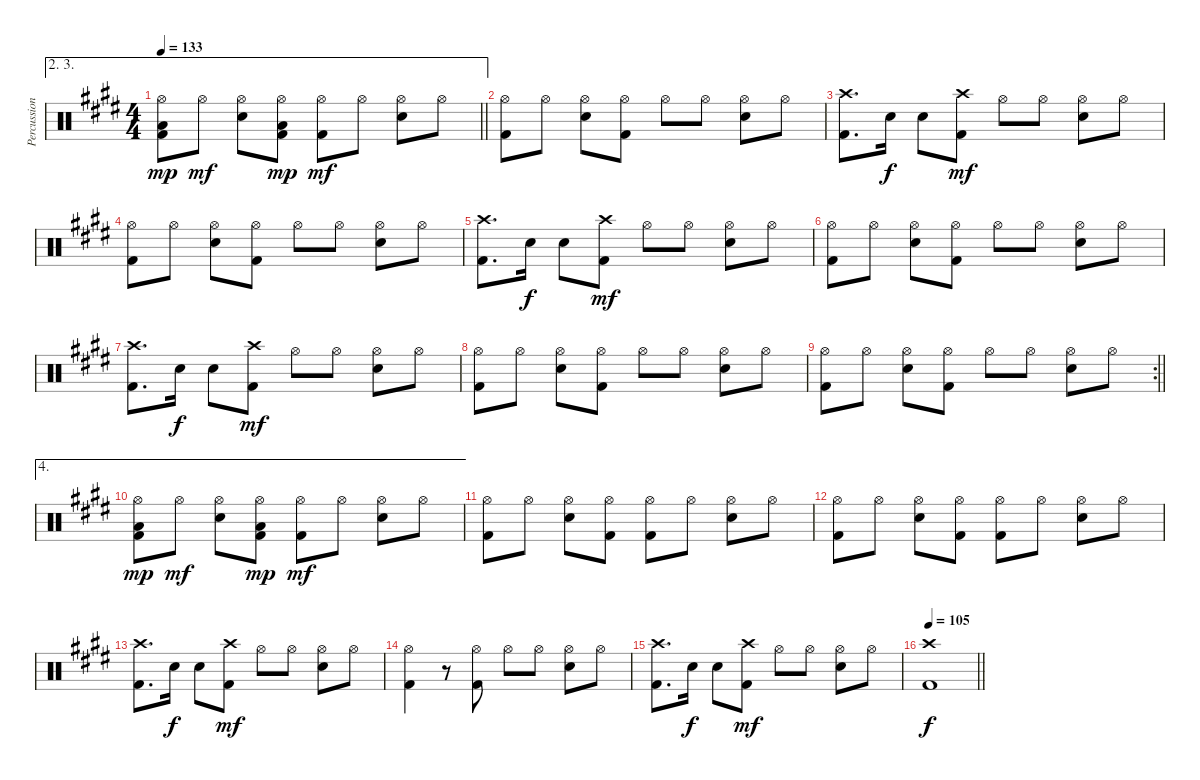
\track ("Percussion" "Percussion") {instrument percussion}
\staff {score}
\articulation defaults
\ae (2 3)
\ts (4 4)
\tempo 133
\clef neutral
\barLineRight lightlight
\ks e
("Hi-Hat (open)" "Kick (hit) 2" "Low Floor Tom (hit)").8{dy mp} "Hi-Hat (open)".8{dy mf} ("Hi-Hat (open)" "Snare (hit) 2").8 ("Hi-Hat (open)" "Kick (hit) 2" "Low Floor Tom (hit)").8{dy mp} ("Hi-Hat (open)" "Kick (hit) 2").8{dy mf} "Hi-Hat (open)".8 ("Hi-Hat (open)" "Snare (hit) 2").8 "Hi-Hat (open)".8 |
("Hi-Hat (open)" "Kick (hit) 2").8 "Hi-Hat (open)".8 ("Hi-Hat (open)" "Snare (hit) 2").8 ("Hi-Hat (open)" "Kick (hit) 2").8 "Hi-Hat (open)".8 "Hi-Hat (open)".8 ("Hi-Hat (open)" "Snare (hit) 2").8 "Hi-Hat (open)".8 |
("Crash high (hit)" "Kick (hit) 2").8{d} "Snare (hit) 2".16{dy f} "Snare (hit) 2".8 ("Crash high (hit)" "Kick (hit) 2").8{dy mf} "Hi-Hat (open)".8 "Hi-Hat (open)".8 ("Hi-Hat (open)" "Snare (hit) 2").8 "Hi-Hat (open)".8 |
("Hi-Hat (open)" "Kick (hit) 2").8 "Hi-Hat (open)".8 ("Hi-Hat (open)" "Snare (hit) 2").8 ("Hi-Hat (open)" "Kick (hit) 2").8 "Hi-Hat (open)".8 "Hi-Hat (open)".8 ("Hi-Hat (open)" "Snare (hit) 2").8 "Hi-Hat (open)".8 |
("Crash high (hit)" "Kick (hit) 2").8{d} "Snare (hit) 2".16{dy f} "Snare (hit) 2".8 ("Crash high (hit)" "Kick (hit) 2").8{dy mf} "Hi-Hat (open)".8 "Hi-Hat (open)".8 ("Hi-Hat (open)" "Snare (hit) 2").8 "Hi-Hat (open)".8 |
("Hi-Hat (open)" "Kick (hit) 2").8 "Hi-Hat (open)".8 ("Hi-Hat (open)" "Snare (hit) 2").8 ("Hi-Hat (open)" "Kick (hit) 2").8 "Hi-Hat (open)".8 "Hi-Hat (open)".8 ("Hi-Hat (open)" "Snare (hit) 2").8 "Hi-Hat (open)".8 |
("Crash high (hit)" "Kick (hit) 2").8{d} "Snare (hit) 2".16{dy f} "Snare (hit) 2".8 ("Crash high (hit)" "Kick (hit) 2").8{dy mf} "Hi-Hat (open)".8 "Hi-Hat (open)".8 ("Hi-Hat (open)" "Snare (hit) 2").8 "Hi-Hat (open)".8 |
("Hi-Hat (open)" "Kick (hit) 2").8 "Hi-Hat (open)".8 ("Hi-Hat (open)" "Snare (hit) 2").8 ("Hi-Hat (open)" "Kick (hit) 2").8 "Hi-Hat (open)".8 "Hi-Hat (open)".8 ("Hi-Hat (open)" "Snare (hit) 2").8 "Hi-Hat (open)".8 |
\rc 2
\barLineRight lightlight
("Hi-Hat (open)" "Kick (hit) 2").8 "Hi-Hat (open)".8 ("Hi-Hat (open)" "Snare (hit) 2").8 ("Hi-Hat (open)" "Kick (hit) 2").8 "Hi-Hat (open)".8 "Hi-Hat (open)".8 ("Hi-Hat (open)" "Snare (hit) 2").8 "Hi-Hat (open)".8 |
\ae 4
("Hi-Hat (open)" "Kick (hit) 2" "Low Floor Tom (hit)").8{dy mp} "Hi-Hat (open)".8{dy mf} ("Hi-Hat (open)" "Snare (hit) 2").8 ("Hi-Hat (open)" "Kick (hit) 2" "Low Floor Tom (hit)").8{dy mp} ("Hi-Hat (open)" "Kick (hit) 2").8{dy mf} "Hi-Hat (open)".8 ("Hi-Hat (open)" "Snare (hit) 2").8 "Hi-Hat (open)".8 |
("Hi-Hat (open)" "Kick (hit) 2").8 "Hi-Hat (open)".8 ("Hi-Hat (open)" "Snare (hit) 2").8 ("Hi-Hat (open)" "Kick (hit) 2").8 ("Hi-Hat (open)" "Kick (hit) 2").8 "Hi-Hat (open)".8 ("Hi-Hat (open)" "Snare (hit) 2").8 "Hi-Hat (open)".8 |
("Hi-Hat (open)" "Kick (hit) 2").8 "Hi-Hat (open)".8 ("Hi-Hat (open)" "Snare (hit) 2").8 ("Hi-Hat (open)" "Kick (hit) 2").8 ("Hi-Hat (open)" "Kick (hit) 2").8 "Hi-Hat (open)".8 ("Hi-Hat (open)" "Snare (hit) 2").8 "Hi-Hat (open)".8 |
("Crash high (hit)" "Kick (hit) 2").8{d} "Snare (hit) 2".16{dy f} "Snare (hit) 2".8 ("Crash high (hit)" "Kick (hit) 2").8{dy mf} "Hi-Hat (open)".8 "Hi-Hat (open)".8 ("Hi-Hat (open)" "Snare (hit) 2").8 "Hi-Hat (open)".8 |
("Hi-Hat (open)" "Kick (hit) 2").4 r.8 ("Hi-Hat (open)" "Kick (hit) 2").8 "Hi-Hat (open)".8 "Hi-Hat (open)".8 ("Hi-Hat (open)" "Snare (hit) 2").8 "Hi-Hat (open)".8 |
("Crash high (hit)" "Kick (hit) 2").8{d} "Snare (hit) 2".16{dy f} "Snare (hit) 2".8 ("Crash high (hit)" "Kick (hit) 2").8{dy mf} "Hi-Hat (open)".8 "Hi-Hat (open)".8 ("Hi-Hat (open)" "Snare (hit) 2").8 "Hi-Hat (open)".8 |
\tempo 105
\barLineRight lightlight
("Crash high (hit)" "Kick (hit) 2").1{dy f}
